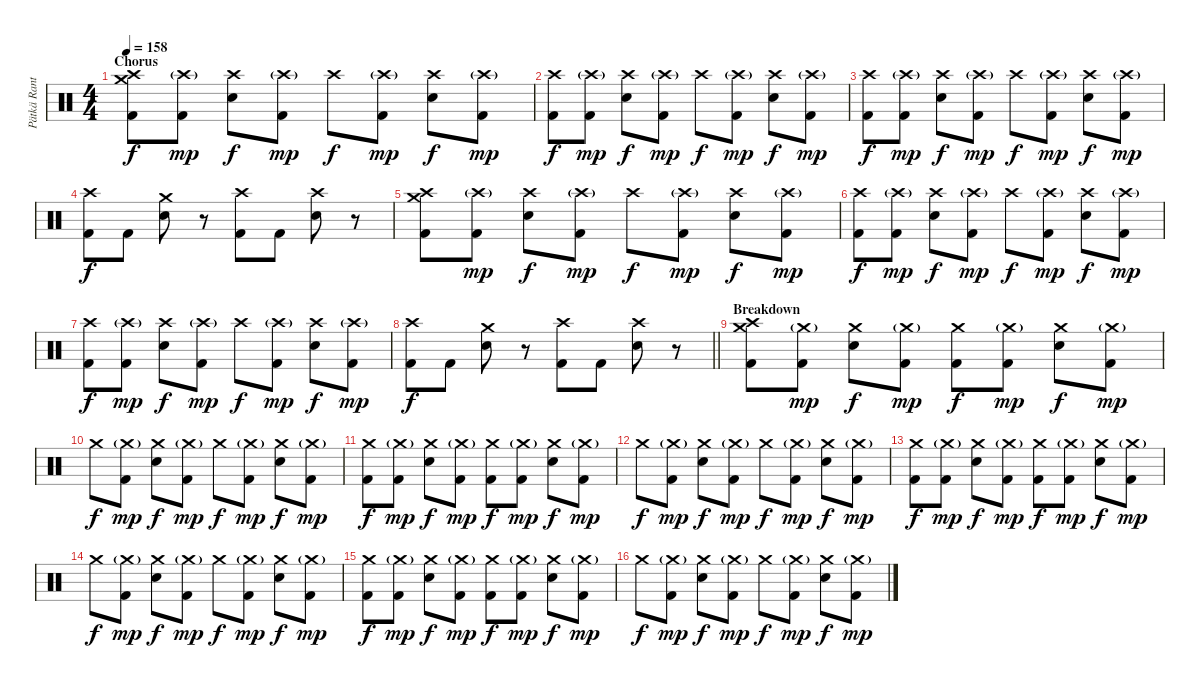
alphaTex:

\track ("Pätkä Rantala (Drums)" "Pätkä Rant") {instrument percussion}
\staff {score}
\articulation defaults
\ts (4 4)
\section ("" "Chorus")
\tempo 158
\clef neutral
\ks c
("Crash medium (hit)" "Crash high (hit)" "Kick (hit) 2").8{dy f} ("Crash high (hit)"{g} "Kick (hit) 2").8{dy mp} ("Crash high (hit)" "Snare (hit) 2").8{dy f} ("Crash high (hit)"{g} "Kick (hit) 2").8{dy mp} "Crash high (hit)".8{dy f} ("Crash high (hit)"{g} "Kick (hit) 2").8{dy mp} ("Crash high (hit)" "Snare (hit) 2").8{dy f} ("Crash high (hit)"{g} "Kick (hit) 2").8{dy mp} |
("Crash high (hit)" "Kick (hit) 2").8{dy f} ("Crash high (hit)"{g} "Kick (hit) 2").8{dy mp} ("Crash high (hit)" "Snare (hit) 2").8{dy f} ("Crash high (hit)"{g} "Kick (hit) 2").8{dy mp} "Crash high (hit)".8{dy f} ("Crash high (hit)"{g} "Kick (hit) 2").8{dy mp} ("Crash high (hit)" "Snare (hit) 2").8{dy f} ("Crash high (hit)"{g} "Kick (hit) 2").8{dy mp} |
("Crash high (hit)" "Kick (hit) 2").8{dy f} ("Crash high (hit)"{g} "Kick (hit) 2").8{dy mp} ("Crash high (hit)" "Snare (hit) 2").8{dy f} ("Crash high (hit)"{g} "Kick (hit) 2").8{dy mp} "Crash high (hit)".8{dy f} ("Crash high (hit)"{g} "Kick (hit) 2").8{dy mp} ("Crash high (hit)" "Snare (hit) 2").8{dy f} ("Crash high (hit)"{g} "Kick (hit) 2").8{dy mp} |
("Crash high (hit)" "Kick (hit) 2").8{dy f} "Kick (hit) 2".8 ("Crash medium (hit)" "Snare (hit) 2").8 r.8 ("Crash high (hit)" "Kick (hit) 2").8 "Kick (hit) 2".8 ("Crash high (hit)" "Snare (hit) 2").8 r.8 |
("Crash medium (hit)" "Crash high (hit)" "Kick (hit) 2").8 ("Crash high (hit)"{g} "Kick (hit) 2").8{dy mp} ("Crash high (hit)" "Snare (hit) 2").8{dy f} ("Crash high (hit)"{g} "Kick (hit) 2").8{dy mp} "Crash high (hit)".8{dy f} ("Crash high (hit)"{g} "Kick (hit) 2").8{dy mp} ("Crash high (hit)" "Snare (hit) 2").8{dy f} ("Crash high (hit)"{g} "Kick (hit) 2").8{dy mp} |
("Crash high (hit)" "Kick (hit) 2").8{dy f} ("Crash high (hit)"{g} "Kick (hit) 2").8{dy mp} ("Crash high (hit)" "Snare (hit) 2").8{dy f} ("Crash high (hit)"{g} "Kick (hit) 2").8{dy mp} "Crash high (hit)".8{dy f} ("Crash high (hit)"{g} "Kick (hit) 2").8{dy mp} ("Crash high (hit)" "Snare (hit) 2").8{dy f} ("Crash high (hit)"{g} "Kick (hit) 2").8{dy mp} |
("Crash high (hit)" "Kick (hit) 2").8{dy f} ("Crash high (hit)"{g} "Kick (hit) 2").8{dy mp} ("Crash high (hit)" "Snare (hit) 2").8{dy f} ("Crash high (hit)"{g} "Kick (hit) 2").8{dy mp} "Crash high (hit)".8{dy f} ("Crash high (hit)"{g} "Kick (hit) 2").8{dy mp} ("Crash high (hit)" "Snare (hit) 2").8{dy f} ("Crash high (hit)"{g} "Kick (hit) 2").8{dy mp} |
\barLineRight lightlight
("Crash high (hit)" "Kick (hit) 2").8{dy f} "Kick (hit) 2".8 ("Crash medium (hit)" "Snare (hit) 2").8 r.8 ("Crash high (hit)" "Kick (hit) 2").8 "Kick (hit) 2".8 ("Crash high (hit)" "Snare (hit) 2").8 r.8 |
\section ("" "Breakdown")
("Crash high (hit)" "Crash medium (hit)" "Kick (hit) 2").8 ("Crash medium (hit)"{g} "Kick (hit) 2").8{dy mp} ("Crash medium (hit)" "Snare (hit) 2").8{dy f} ("Crash medium (hit)"{g} "Kick (hit) 2").8{dy mp} ("Crash medium (hit)" "Kick (hit) 2").8{dy f} ("Crash medium (hit)"{g} "Kick (hit) 2").8{dy mp} ("Crash medium (hit)" "Snare (hit) 2").8{dy f} ("Crash medium (hit)"{g} "Kick (hit) 2").8{dy mp} |
"Crash medium (hit)".8{dy f} ("Crash medium (hit)"{g} "Kick (hit) 2").8{dy mp} ("Crash medium (hit)" "Snare (hit) 2").8{dy f} ("Crash medium (hit)"{g} "Kick (hit) 2").8{dy mp} "Crash medium (hit)".8{dy f} ("Crash medium (hit)"{g} "Kick (hit) 2").8{dy mp} ("Crash medium (hit)" "Snare (hit) 2").8{dy f} ("Crash medium (hit)"{g} "Kick (hit) 2").8{dy mp} |
("Crash medium (hit)" "Kick (hit) 2").8{dy f} ("Crash medium (hit)"{g} "Kick (hit) 2").8{dy mp} ("Crash medium (hit)" "Snare (hit) 2").8{dy f} ("Crash medium (hit)"{g} "Kick (hit) 2").8{dy mp} ("Crash medium (hit)" "Kick (hit) 2").8{dy f} ("Crash medium (hit)"{g} "Kick (hit) 2").8{dy mp} ("Crash medium (hit)" "Snare (hit) 2").8{dy f} ("Crash medium (hit)"{g} "Kick (hit) 2").8{dy mp} |
"Crash medium (hit)".8{dy f} ("Crash medium (hit)"{g} "Kick (hit) 2").8{dy mp} ("Crash medium (hit)" "Snare (hit) 2").8{dy f} ("Crash medium (hit)"{g} "Kick (hit) 2").8{dy mp} "Crash medium (hit)".8{dy f} ("Crash medium (hit)"{g} "Kick (hit) 2").8{dy mp} ("Crash medium (hit)" "Snare (hit) 2").8{dy f} ("Crash medium (hit)"{g} "Kick (hit) 2").8{dy mp} |
("Crash medium (hit)" "Kick (hit) 2").8{dy f} ("Crash medium (hit)"{g} "Kick (hit) 2").8{dy mp} ("Crash medium (hit)" "Snare (hit) 2").8{dy f} ("Crash medium (hit)"{g} "Kick (hit) 2").8{dy mp} ("Crash medium (hit)" "Kick (hit) 2").8{dy f} ("Crash medium (hit)"{g} "Kick (hit) 2").8{dy mp} ("Crash medium (hit)" "Snare (hit) 2").8{dy f} ("Crash medium (hit)"{g} "Kick (hit) 2").8{dy mp} |
"Crash medium (hit)".8{dy f} ("Crash medium (hit)"{g} "Kick (hit) 2").8{dy mp} ("Crash medium (hit)" "Snare (hit) 2").8{dy f} ("Crash medium (hit)"{g} "Kick (hit) 2").8{dy mp} "Crash medium (hit)".8{dy f} ("Crash medium (hit)"{g} "Kick (hit) 2").8{dy mp} ("Crash medium (hit)" "Snare (hit) 2").8{dy f} ("Crash medium (hit)"{g} "Kick (hit) 2").8{dy mp} |
("Crash medium (hit)" "Kick (hit) 2").8{dy f} ("Crash medium (hit)"{g} "Kick (hit) 2").8{dy mp} ("Crash medium (hit)" "Snare (hit) 2").8{dy f} ("Crash medium (hit)"{g} "Kick (hit) 2").8{dy mp} ("Crash medium (hit)" "Kick (hit) 2").8{dy f} ("Crash medium (hit)"{g} "Kick (hit) 2").8{dy mp} ("Crash medium (hit)" "Snare (hit) 2").8{dy f} ("Crash medium (hit)"{g} "Kick (hit) 2").8{dy mp} |
"Crash medium (hit)".8{dy f} ("Crash medium (hit)"{g} "Kick (hit) 2").8{dy mp} ("Crash medium (hit)" "Snare (hit) 2").8{dy f} ("Crash medium (hit)"{g} "Kick (hit) 2").8{dy mp} "Crash medium (hit)".8{dy f} ("Crash medium (hit)"{g} "Kick (hit) 2").8{dy mp} ("Crash medium (hit)" "Snare (hit) 2").8{dy f} ("Crash medium (hit)"{g} "Kick (hit) 2").8{dy mp}
